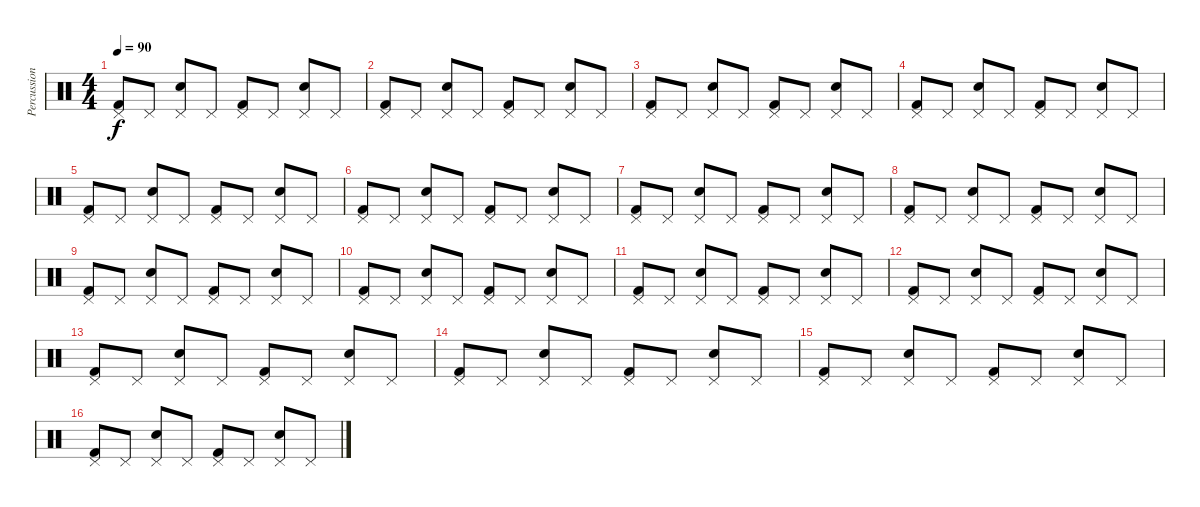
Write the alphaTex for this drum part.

\track ("Percussion" "Percussion") {instrument percussion}
\staff {score}
\articulation defaults
\ts (4 4)
\tempo 90
\clef neutral
\ks c
("Pedal Hi-Hat (hit)" "Kick (hit) 2").8{dy f} "Pedal Hi-Hat (hit)".8 ("Pedal Hi-Hat (hit)" "Snare (hit) 2").8 "Pedal Hi-Hat (hit)".8 ("Pedal Hi-Hat (hit)" "Kick (hit) 2").8 "Pedal Hi-Hat (hit)".8 ("Pedal Hi-Hat (hit)" "Snare (hit) 2").8 "Pedal Hi-Hat (hit)".8 |
("Pedal Hi-Hat (hit)" "Kick (hit) 2").8 "Pedal Hi-Hat (hit)".8 ("Pedal Hi-Hat (hit)" "Snare (hit) 2").8 "Pedal Hi-Hat (hit)".8 ("Pedal Hi-Hat (hit)" "Kick (hit) 2").8 "Pedal Hi-Hat (hit)".8 ("Pedal Hi-Hat (hit)" "Snare (hit) 2").8 "Pedal Hi-Hat (hit)".8 |
("Pedal Hi-Hat (hit)" "Kick (hit) 2").8 "Pedal Hi-Hat (hit)".8 ("Pedal Hi-Hat (hit)" "Snare (hit) 2").8 "Pedal Hi-Hat (hit)".8 ("Pedal Hi-Hat (hit)" "Kick (hit) 2").8 "Pedal Hi-Hat (hit)".8 ("Pedal Hi-Hat (hit)" "Snare (hit) 2").8 "Pedal Hi-Hat (hit)".8 |
("Pedal Hi-Hat (hit)" "Kick (hit) 2").8 "Pedal Hi-Hat (hit)".8 ("Pedal Hi-Hat (hit)" "Snare (hit) 2").8 "Pedal Hi-Hat (hit)".8 ("Pedal Hi-Hat (hit)" "Kick (hit) 2").8 "Pedal Hi-Hat (hit)".8 ("Pedal Hi-Hat (hit)" "Snare (hit) 2").8 "Pedal Hi-Hat (hit)".8 |
("Pedal Hi-Hat (hit)" "Kick (hit) 2").8 "Pedal Hi-Hat (hit)".8 ("Pedal Hi-Hat (hit)" "Snare (hit) 2").8 "Pedal Hi-Hat (hit)".8 ("Pedal Hi-Hat (hit)" "Kick (hit) 2").8 "Pedal Hi-Hat (hit)".8 ("Pedal Hi-Hat (hit)" "Snare (hit) 2").8 "Pedal Hi-Hat (hit)".8 |
("Pedal Hi-Hat (hit)" "Kick (hit) 2").8 "Pedal Hi-Hat (hit)".8 ("Pedal Hi-Hat (hit)" "Snare (hit) 2").8 "Pedal Hi-Hat (hit)".8 ("Pedal Hi-Hat (hit)" "Kick (hit) 2").8 "Pedal Hi-Hat (hit)".8 ("Pedal Hi-Hat (hit)" "Snare (hit) 2").8 "Pedal Hi-Hat (hit)".8 |
("Pedal Hi-Hat (hit)" "Kick (hit) 2").8 "Pedal Hi-Hat (hit)".8 ("Pedal Hi-Hat (hit)" "Snare (hit) 2").8 "Pedal Hi-Hat (hit)".8 ("Pedal Hi-Hat (hit)" "Kick (hit) 2").8 "Pedal Hi-Hat (hit)".8 ("Pedal Hi-Hat (hit)" "Snare (hit) 2").8 "Pedal Hi-Hat (hit)".8 |
("Pedal Hi-Hat (hit)" "Kick (hit) 2").8 "Pedal Hi-Hat (hit)".8 ("Pedal Hi-Hat (hit)" "Snare (hit) 2").8 "Pedal Hi-Hat (hit)".8 ("Pedal Hi-Hat (hit)" "Kick (hit) 2").8 "Pedal Hi-Hat (hit)".8 ("Pedal Hi-Hat (hit)" "Snare (hit) 2").8 "Pedal Hi-Hat (hit)".8 |
("Pedal Hi-Hat (hit)" "Kick (hit) 2").8 "Pedal Hi-Hat (hit)".8 ("Pedal Hi-Hat (hit)" "Snare (hit) 2").8 "Pedal Hi-Hat (hit)".8 ("Pedal Hi-Hat (hit)" "Kick (hit) 2").8 "Pedal Hi-Hat (hit)".8 ("Pedal Hi-Hat (hit)" "Snare (hit) 2").8 "Pedal Hi-Hat (hit)".8 |
("Pedal Hi-Hat (hit)" "Kick (hit) 2").8 "Pedal Hi-Hat (hit)".8 ("Pedal Hi-Hat (hit)" "Snare (hit) 2").8 "Pedal Hi-Hat (hit)".8 ("Pedal Hi-Hat (hit)" "Kick (hit) 2").8 "Pedal Hi-Hat (hit)".8 ("Pedal Hi-Hat (hit)" "Snare (hit) 2").8 "Pedal Hi-Hat (hit)".8 |
("Pedal Hi-Hat (hit)" "Kick (hit) 2").8 "Pedal Hi-Hat (hit)".8 ("Pedal Hi-Hat (hit)" "Snare (hit) 2").8 "Pedal Hi-Hat (hit)".8 ("Pedal Hi-Hat (hit)" "Kick (hit) 2").8 "Pedal Hi-Hat (hit)".8 ("Pedal Hi-Hat (hit)" "Snare (hit) 2").8 "Pedal Hi-Hat (hit)".8 |
("Pedal Hi-Hat (hit)" "Kick (hit) 2").8 "Pedal Hi-Hat (hit)".8 ("Pedal Hi-Hat (hit)" "Snare (hit) 2").8 "Pedal Hi-Hat (hit)".8 ("Pedal Hi-Hat (hit)" "Kick (hit) 2").8 "Pedal Hi-Hat (hit)".8 ("Pedal Hi-Hat (hit)" "Snare (hit) 2").8 "Pedal Hi-Hat (hit)".8 |
("Pedal Hi-Hat (hit)" "Kick (hit) 2").8 "Pedal Hi-Hat (hit)".8 ("Pedal Hi-Hat (hit)" "Snare (hit) 2").8 "Pedal Hi-Hat (hit)".8 ("Pedal Hi-Hat (hit)" "Kick (hit) 2").8 "Pedal Hi-Hat (hit)".8 ("Pedal Hi-Hat (hit)" "Snare (hit) 2").8 "Pedal Hi-Hat (hit)".8 |
("Pedal Hi-Hat (hit)" "Kick (hit) 2").8 "Pedal Hi-Hat (hit)".8 ("Pedal Hi-Hat (hit)" "Snare (hit) 2").8 "Pedal Hi-Hat (hit)".8 ("Pedal Hi-Hat (hit)" "Kick (hit) 2").8 "Pedal Hi-Hat (hit)".8 ("Pedal Hi-Hat (hit)" "Snare (hit) 2").8 "Pedal Hi-Hat (hit)".8 |
("Pedal Hi-Hat (hit)" "Kick (hit) 2").8 "Pedal Hi-Hat (hit)".8 ("Pedal Hi-Hat (hit)" "Snare (hit) 2").8 "Pedal Hi-Hat (hit)".8 ("Pedal Hi-Hat (hit)" "Kick (hit) 2").8 "Pedal Hi-Hat (hit)".8 ("Pedal Hi-Hat (hit)" "Snare (hit) 2").8 "Pedal Hi-Hat (hit)".8 |
("Pedal Hi-Hat (hit)" "Kick (hit) 2").8 "Pedal Hi-Hat (hit)".8 ("Pedal Hi-Hat (hit)" "Snare (hit) 2").8 "Pedal Hi-Hat (hit)".8 ("Pedal Hi-Hat (hit)" "Kick (hit) 2").8 "Pedal Hi-Hat (hit)".8 ("Pedal Hi-Hat (hit)" "Snare (hit) 2").8 "Pedal Hi-Hat (hit)".8
